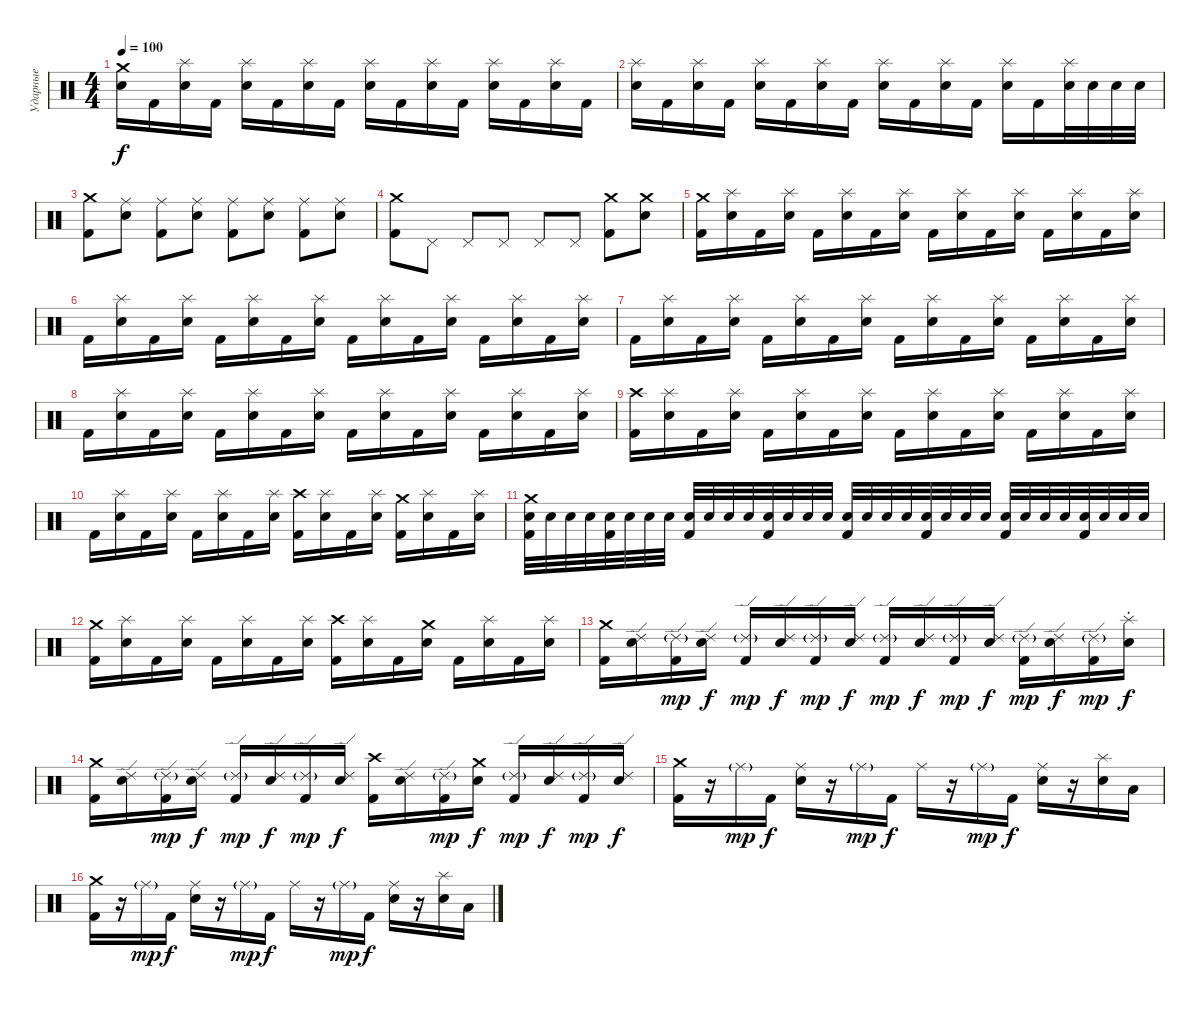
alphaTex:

\track ("Ударные" "Ударные") {instrument percussion}
\staff {score}
\articulation defaults
\ts (4 4)
\tempo 100
\clef neutral
\ks c
("Crash medium (hit)" "Electric Snare (hit)").16{dy f} "Kick (hit) 2".16 ("Splash (hit)" "Electric Snare (hit)").16 "Kick (hit) 2".16 ("Splash (hit)" "Electric Snare (hit)").16 "Kick (hit) 2".16 ("Splash (hit)" "Electric Snare (hit)").16 "Kick (hit) 2".16 ("Splash (hit)" "Electric Snare (hit)").16 "Kick (hit) 2".16 ("Splash (hit)" "Electric Snare (hit)").16 "Kick (hit) 2".16 ("Splash (hit)" "Electric Snare (hit)").16 "Kick (hit) 2".16 ("Splash (hit)" "Electric Snare (hit)").16 "Kick (hit) 2".16 |
("Splash (hit)" "Electric Snare (hit)").16 "Kick (hit) 2".16 ("Splash (hit)" "Electric Snare (hit)").16 "Kick (hit) 2".16 ("Splash (hit)" "Electric Snare (hit)").16 "Kick (hit) 2".16 ("Splash (hit)" "Electric Snare (hit)").16 "Kick (hit) 2".16 ("Splash (hit)" "Electric Snare (hit)").16 "Kick (hit) 2".16 ("Splash (hit)" "Electric Snare (hit)").16 "Kick (hit) 2".16 ("Splash (hit)" "Electric Snare (hit)").16 "Kick (hit) 2".16 ("Splash (hit)" "Electric Snare (hit)").32 "Electric Snare (hit)".32 "Electric Snare (hit)".32 "Electric Snare (hit)".32 |
("Crash medium (hit)" "Kick (hit) 2").8 ("Ride (middle)" "Electric Snare (hit)").8 ("Ride (middle)" "Kick (hit) 2").8 ("Ride (middle)" "Electric Snare (hit)").8 ("Ride (middle)" "Kick (hit) 2").8 ("Ride (middle)" "Electric Snare (hit)").8 ("Ride (middle)" "Kick (hit) 2").8 ("Ride (middle)" "Electric Snare (hit)").8 |
("Crash medium (hit)" "Kick (hit) 2").8 "Pedal Hi-Hat (hit)".8 "Pedal Hi-Hat (hit)".8 "Pedal Hi-Hat (hit)".8 "Pedal Hi-Hat (hit)".8 "Pedal Hi-Hat (hit)".8 ("Crash medium (hit)" "Kick (hit) 2").8 ("Crash medium (hit)" "Electric Snare (hit)").8 |
("Crash medium (hit)" "Kick (hit) 2").16 ("Splash (hit)" "Electric Snare (hit)").16 "Kick (hit) 2".16 ("Splash (hit)" "Electric Snare (hit)").16 "Kick (hit) 2".16 ("Splash (hit)" "Electric Snare (hit)").16 "Kick (hit) 2".16 ("Splash (hit)" "Electric Snare (hit)").16 "Kick (hit) 2".16 ("Splash (hit)" "Electric Snare (hit)").16 "Kick (hit) 2".16 ("Splash (hit)" "Electric Snare (hit)").16 "Kick (hit) 2".16 ("Splash (hit)" "Electric Snare (hit)").16 "Kick (hit) 2".16 ("Splash (hit)" "Electric Snare (hit)").16 |
"Kick (hit) 2".16 ("Splash (hit)" "Electric Snare (hit)").16 "Kick (hit) 2".16 ("Splash (hit)" "Electric Snare (hit)").16 "Kick (hit) 2".16 ("Splash (hit)" "Electric Snare (hit)").16 "Kick (hit) 2".16 ("Splash (hit)" "Electric Snare (hit)").16 "Kick (hit) 2".16 ("Splash (hit)" "Electric Snare (hit)").16 "Kick (hit) 2".16 ("Splash (hit)" "Electric Snare (hit)").16 "Kick (hit) 2".16 ("Splash (hit)" "Electric Snare (hit)").16 "Kick (hit) 2".16 ("Splash (hit)" "Electric Snare (hit)").16 |
"Kick (hit) 2".16 ("Splash (hit)" "Electric Snare (hit)").16 "Kick (hit) 2".16 ("Splash (hit)" "Electric Snare (hit)").16 "Kick (hit) 2".16 ("Splash (hit)" "Electric Snare (hit)").16 "Kick (hit) 2".16 ("Splash (hit)" "Electric Snare (hit)").16 "Kick (hit) 2".16 ("Splash (hit)" "Electric Snare (hit)").16 "Kick (hit) 2".16 ("Splash (hit)" "Electric Snare (hit)").16 "Kick (hit) 2".16 ("Splash (hit)" "Electric Snare (hit)").16 "Kick (hit) 2".16 ("Splash (hit)" "Electric Snare (hit)").16 |
"Kick (hit) 2".16 ("Splash (hit)" "Electric Snare (hit)").16 "Kick (hit) 2".16 ("Splash (hit)" "Electric Snare (hit)").16 "Kick (hit) 2".16 ("Splash (hit)" "Electric Snare (hit)").16 "Kick (hit) 2".16 ("Splash (hit)" "Electric Snare (hit)").16 "Kick (hit) 2".16 ("Splash (hit)" "Electric Snare (hit)").16 "Kick (hit) 2".16 ("Splash (hit)" "Electric Snare (hit)").16 "Kick (hit) 2".16 ("Splash (hit)" "Electric Snare (hit)").16 "Kick (hit) 2".16 ("Splash (hit)" "Electric Snare (hit)").16 |
("Crash high (hit)" "Kick (hit) 2").16 ("Splash (hit)" "Electric Snare (hit)").16 "Kick (hit) 2".16 ("Splash (hit)" "Electric Snare (hit)").16 "Kick (hit) 2".16 ("Splash (hit)" "Electric Snare (hit)").16 "Kick (hit) 2".16 ("Splash (hit)" "Electric Snare (hit)").16 "Kick (hit) 2".16 ("Splash (hit)" "Electric Snare (hit)").16 "Kick (hit) 2".16 ("Splash (hit)" "Electric Snare (hit)").16 "Kick (hit) 2".16 ("Splash (hit)" "Electric Snare (hit)").16 "Kick (hit) 2".16 ("Splash (hit)" "Electric Snare (hit)").16 |
"Kick (hit) 2".16 ("Splash (hit)" "Electric Snare (hit)").16 "Kick (hit) 2".16 ("Splash (hit)" "Electric Snare (hit)").16 "Kick (hit) 2".16 ("Splash (hit)" "Electric Snare (hit)").16 "Kick (hit) 2".16 ("Splash (hit)" "Electric Snare (hit)").16 ("Crash high (hit)" "Kick (hit) 2").16 ("Splash (hit)" "Electric Snare (hit)").16 "Kick (hit) 2".16 ("Splash (hit)" "Electric Snare (hit)").16 ("Crash medium (hit)" "Kick (hit) 2").16 ("Splash (hit)" "Electric Snare (hit)").16 "Kick (hit) 2".16 ("Splash (hit)" "Electric Snare (hit)").16 |
("Crash medium (hit)" "Electric Snare (hit)" "Kick (hit) 2").32 "Electric Snare (hit)".32 "Electric Snare (hit)".32 "Electric Snare (hit)".32 ("Electric Snare (hit)" "Kick (hit) 2").32 "Electric Snare (hit)".32 "Electric Snare (hit)".32 "Electric Snare (hit)".32 ("Electric Snare (hit)" "Kick (hit) 2").32 "Electric Snare (hit)".32 "Electric Snare (hit)".32 "Electric Snare (hit)".32 ("Electric Snare (hit)" "Kick (hit) 2").32 "Electric Snare (hit)".32 "Electric Snare (hit)".32 "Electric Snare (hit)".32 ("Electric Snare (hit)" "Kick (hit) 2").32 "Electric Snare (hit)".32 "Electric Snare (hit)".32 "Electric Snare (hit)".32 ("Electric Snare (hit)" "Kick (hit) 2").32 "Electric Snare (hit)".32 "Electric Snare (hit)".32 "Electric Snare (hit)".32 ("Electric Snare (hit)" "Kick (hit) 2").32 "Electric Snare (hit)".32 "Electric Snare (hit)".32 "Electric Snare (hit)".32 ("Electric Snare (hit)" "Kick (hit) 2").32 "Electric Snare (hit)".32 "Electric Snare (hit)".32 "Electric Snare (hit)".32 |
("Crash medium (hit)" "Kick (hit) 2").16 ("Splash (hit)" "Electric Snare (hit)").16 "Kick (hit) 2".16 ("Splash (hit)" "Electric Snare (hit)").16 "Kick (hit) 2".16 ("Splash (hit)" "Electric Snare (hit)").16 "Kick (hit) 2".16 ("Splash (hit)" "Electric Snare (hit)").16 ("Crash high (hit)" "Kick (hit) 2").16 ("Splash (hit)" "Electric Snare (hit)").16 "Kick (hit) 2".16 ("Crash medium (hit)" "Electric Snare (hit)").16 "Kick (hit) 2".16 ("Splash (hit)" "Electric Snare (hit)").16 "Kick (hit) 2".16 ("Splash (hit)" "Electric Snare (hit)").16 |
("Crash medium (hit)" "Kick (hit) 2").16 ("Ride (edge) 2" "Electric Snare (hit)").16 ("Ride (edge) 2"{g} "Kick (hit) 2").16{dy mp} ("Ride (edge) 2" "Electric Snare (hit)").16{dy f} ("Ride (edge) 2"{g} "Kick (hit) 2").16{dy mp} ("Ride (edge) 2" "Electric Snare (hit)").16{dy f} ("Ride (edge) 2"{g} "Kick (hit) 2").16{dy mp} ("Ride (edge) 2" "Electric Snare (hit)").16{dy f} ("Ride (edge) 2"{g} "Kick (hit) 2").16{dy mp} ("Ride (edge) 2" "Electric Snare (hit)").16{dy f} ("Ride (edge) 2"{g} "Kick (hit) 2").16{dy mp} ("Ride (edge) 2" "Electric Snare (hit)").16{dy f} ("Ride (edge) 2"{g} "Kick (hit) 2").16{dy mp} ("Ride (edge) 2" "Electric Snare (hit)").16{dy f} ("Ride (edge) 2"{g} "Kick (hit) 2").16{dy mp} ("Splash (choke)" "Electric Snare (hit)").16{dy f} |
("Crash medium (hit)" "Kick (hit) 2").16 ("Ride (edge) 2" "Electric Snare (hit)").16 ("Ride (edge) 2"{g} "Kick (hit) 2").16{dy mp} ("Ride (edge) 2" "Electric Snare (hit)").16{dy f} ("Ride (edge) 2"{g} "Kick (hit) 2").16{dy mp} ("Ride (edge) 2" "Electric Snare (hit)").16{dy f} ("Ride (edge) 2"{g} "Kick (hit) 2").16{dy mp} ("Ride (edge) 2" "Electric Snare (hit)").16{dy f} ("Crash high (hit)" "Kick (hit) 2").16 ("Ride (edge) 2" "Electric Snare (hit)").16 ("Ride (edge) 2"{g} "Kick (hit) 2").16{dy mp} ("Crash medium (hit)" "Electric Snare (hit)").16{dy f} ("Ride (edge) 2"{g} "Kick (hit) 2").16{dy mp} ("Ride (edge) 2" "Electric Snare (hit)").16{dy f} ("Ride (edge) 2"{g} "Kick (hit) 2").16{dy mp} ("Ride (edge) 2" "Electric Snare (hit)").16{dy f} |
("Crash medium (hit)" "Kick (hit) 2").16 r.16 "Ride (middle)"{g}.16{dy mp} "Kick (hit) 2".16{dy f} ("Ride (middle)" "Electric Snare (hit)").16 r.16 "Ride (middle)"{g}.16{dy mp} "Kick (hit) 2".16{dy f} "Ride (middle)".16 r.16 "Ride (middle)"{g}.16{dy mp} "Kick (hit) 2".16{dy f} ("Ride (middle)" "Electric Snare (hit)").16 r.16 ("Splash (hit)" "Electric Snare (hit)").16 "Low Tom (hit)".16 |
("Crash medium (hit)" "Kick (hit) 2").16 r.16 "Ride (middle)"{g}.16{dy mp} "Kick (hit) 2".16{dy f} ("Ride (middle)" "Electric Snare (hit)").16 r.16 "Ride (middle)"{g}.16{dy mp} "Kick (hit) 2".16{dy f} "Ride (middle)".16 r.16 "Ride (middle)"{g}.16{dy mp} "Kick (hit) 2".16{dy f} ("Ride (middle)" "Electric Snare (hit)").16 r.16 ("Splash (hit)" "Electric Snare (hit)").16 "Low Tom (hit)".16
